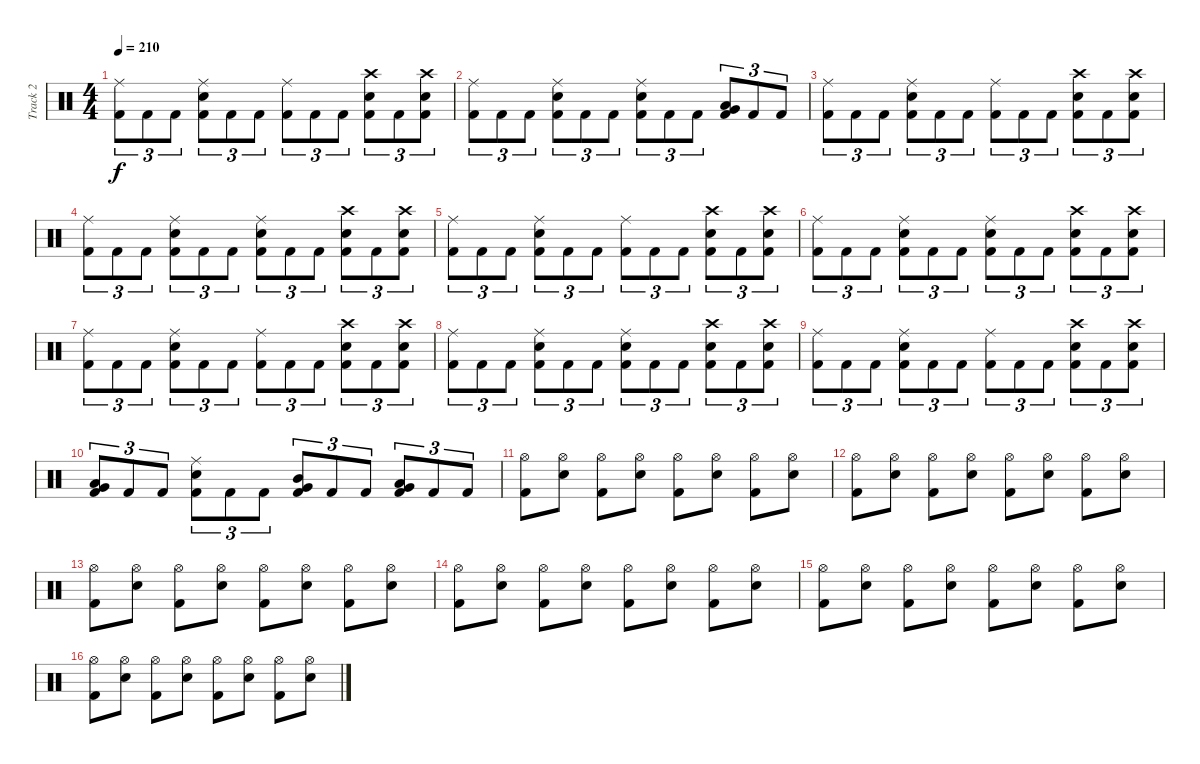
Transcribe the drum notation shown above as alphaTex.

\track ("Track 2" "Track 2") {instrument percussion}
\staff {score}
\articulation defaults
\ts (4 4)
\tempo 210
\clef neutral
\ks c
("Ride (middle)" "Kick (hit) 2").8{tu (3 2) dy f} "Kick (hit) 2".8{tu (3 2)} "Kick (hit) 2".8{tu (3 2)} ("Ride (middle)" "Snare (hit) 2" "Kick (hit) 2").8{tu (3 2)} "Kick (hit) 2".8{tu (3 2)} "Kick (hit) 2".8{tu (3 2)} ("Ride (middle)" "Kick (hit) 2").8{tu (3 2)} "Kick (hit) 2".8{tu (3 2)} "Kick (hit) 2".8{tu (3 2)} ("Crash high (hit)" "Snare (hit) 2" "Kick (hit) 2").8{tu (3 2)} "Kick (hit) 2".8{tu (3 2)} ("Crash high (hit)" "Snare (hit) 2" "Kick (hit) 2").8{tu (3 2)} |
("Ride (middle)" "Kick (hit) 2").8{tu (3 2)} "Kick (hit) 2".8{tu (3 2)} "Kick (hit) 2".8{tu (3 2)} ("Ride (middle)" "Snare (hit) 2" "Kick (hit) 2").8{tu (3 2)} "Kick (hit) 2".8{tu (3 2)} "Kick (hit) 2".8{tu (3 2)} ("Ride (middle)" "Snare (hit) 2" "Kick (hit) 2").8{tu (3 2)} "Kick (hit) 2".8{tu (3 2)} "Kick (hit) 2".8{tu (3 2)} ("Low Tom (hit)" "Very Low Tom (hit)" "Kick (hit) 2").8{tu (3 2)} "Kick (hit) 2".8{tu (3 2)} "Kick (hit) 2".8{tu (3 2)} |
("Ride (middle)" "Kick (hit) 2").8{tu (3 2)} "Kick (hit) 2".8{tu (3 2)} "Kick (hit) 2".8{tu (3 2)} ("Ride (middle)" "Snare (hit) 2" "Kick (hit) 2").8{tu (3 2)} "Kick (hit) 2".8{tu (3 2)} "Kick (hit) 2".8{tu (3 2)} ("Ride (middle)" "Kick (hit) 2").8{tu (3 2)} "Kick (hit) 2".8{tu (3 2)} "Kick (hit) 2".8{tu (3 2)} ("Crash high (hit)" "Snare (hit) 2" "Kick (hit) 2").8{tu (3 2)} "Kick (hit) 2".8{tu (3 2)} ("Crash high (hit)" "Snare (hit) 2" "Kick (hit) 2").8{tu (3 2)} |
("Ride (middle)" "Kick (hit) 2").8{tu (3 2)} "Kick (hit) 2".8{tu (3 2)} "Kick (hit) 2".8{tu (3 2)} ("Ride (middle)" "Snare (hit) 2" "Kick (hit) 2").8{tu (3 2)} "Kick (hit) 2".8{tu (3 2)} "Kick (hit) 2".8{tu (3 2)} ("Ride (middle)" "Snare (hit) 2" "Kick (hit) 2").8{tu (3 2)} "Kick (hit) 2".8{tu (3 2)} "Kick (hit) 2".8{tu (3 2)} ("Crash high (hit)" "Snare (hit) 2" "Kick (hit) 2").8{tu (3 2)} "Kick (hit) 2".8{tu (3 2)} ("Crash high (hit)" "Snare (hit) 2" "Kick (hit) 2").8{tu (3 2)} |
("Ride (middle)" "Kick (hit) 2").8{tu (3 2)} "Kick (hit) 2".8{tu (3 2)} "Kick (hit) 2".8{tu (3 2)} ("Ride (middle)" "Snare (hit) 2" "Kick (hit) 2").8{tu (3 2)} "Kick (hit) 2".8{tu (3 2)} "Kick (hit) 2".8{tu (3 2)} ("Ride (middle)" "Kick (hit) 2").8{tu (3 2)} "Kick (hit) 2".8{tu (3 2)} "Kick (hit) 2".8{tu (3 2)} ("Crash high (hit)" "Snare (hit) 2" "Kick (hit) 2").8{tu (3 2)} "Kick (hit) 2".8{tu (3 2)} ("Crash high (hit)" "Snare (hit) 2" "Kick (hit) 2").8{tu (3 2)} |
("Ride (middle)" "Kick (hit) 2").8{tu (3 2)} "Kick (hit) 2".8{tu (3 2)} "Kick (hit) 2".8{tu (3 2)} ("Ride (middle)" "Snare (hit) 2" "Kick (hit) 2").8{tu (3 2)} "Kick (hit) 2".8{tu (3 2)} "Kick (hit) 2".8{tu (3 2)} ("Ride (middle)" "Snare (hit) 2" "Kick (hit) 2").8{tu (3 2)} "Kick (hit) 2".8{tu (3 2)} "Kick (hit) 2".8{tu (3 2)} ("Crash high (hit)" "Snare (hit) 2" "Kick (hit) 2").8{tu (3 2)} "Kick (hit) 2".8{tu (3 2)} ("Crash high (hit)" "Snare (hit) 2" "Kick (hit) 2").8{tu (3 2)} |
("Ride (middle)" "Kick (hit) 2").8{tu (3 2)} "Kick (hit) 2".8{tu (3 2)} "Kick (hit) 2".8{tu (3 2)} ("Ride (middle)" "Snare (hit) 2" "Kick (hit) 2").8{tu (3 2)} "Kick (hit) 2".8{tu (3 2)} "Kick (hit) 2".8{tu (3 2)} ("Ride (middle)" "Kick (hit) 2").8{tu (3 2)} "Kick (hit) 2".8{tu (3 2)} "Kick (hit) 2".8{tu (3 2)} ("Crash high (hit)" "Snare (hit) 2" "Kick (hit) 2").8{tu (3 2)} "Kick (hit) 2".8{tu (3 2)} ("Crash high (hit)" "Snare (hit) 2" "Kick (hit) 2").8{tu (3 2)} |
("Ride (middle)" "Kick (hit) 2").8{tu (3 2)} "Kick (hit) 2".8{tu (3 2)} "Kick (hit) 2".8{tu (3 2)} ("Ride (middle)" "Snare (hit) 2" "Kick (hit) 2").8{tu (3 2)} "Kick (hit) 2".8{tu (3 2)} "Kick (hit) 2".8{tu (3 2)} ("Ride (middle)" "Snare (hit) 2" "Kick (hit) 2").8{tu (3 2)} "Kick (hit) 2".8{tu (3 2)} "Kick (hit) 2".8{tu (3 2)} ("Crash high (hit)" "Snare (hit) 2" "Kick (hit) 2").8{tu (3 2)} "Kick (hit) 2".8{tu (3 2)} ("Crash high (hit)" "Snare (hit) 2" "Kick (hit) 2").8{tu (3 2)} |
("Ride (middle)" "Kick (hit) 2").8{tu (3 2)} "Kick (hit) 2".8{tu (3 2)} "Kick (hit) 2".8{tu (3 2)} ("Ride (middle)" "Snare (hit) 2" "Kick (hit) 2").8{tu (3 2)} "Kick (hit) 2".8{tu (3 2)} "Kick (hit) 2".8{tu (3 2)} ("Ride (middle)" "Kick (hit) 2").8{tu (3 2)} "Kick (hit) 2".8{tu (3 2)} "Kick (hit) 2".8{tu (3 2)} ("Crash high (hit)" "Snare (hit) 2" "Kick (hit) 2").8{tu (3 2)} "Kick (hit) 2".8{tu (3 2)} ("Crash high (hit)" "Snare (hit) 2" "Kick (hit) 2").8{tu (3 2)} |
("Low Tom (hit)" "Very Low Tom (hit)" "Kick (hit) 2").8{tu (3 2)} "Kick (hit) 2".8{tu (3 2)} "Kick (hit) 2".8{tu (3 2)} ("Ride (middle)" "Snare (hit) 2" "Kick (hit) 2").8{tu (3 2)} "Kick (hit) 2".8{tu (3 2)} "Kick (hit) 2".8{tu (3 2)} ("Mid Tom (hit)" "Very Low Tom (hit)" "Kick (hit) 2").8{tu (3 2)} "Kick (hit) 2".8{tu (3 2)} "Kick (hit) 2".8{tu (3 2)} ("Low Tom (hit)" "Very Low Tom (hit)" "Kick (hit) 2").8{tu (3 2)} "Kick (hit) 2".8{tu (3 2)} "Kick (hit) 2".8{tu (3 2)} |
("Hi-Hat (open)" "Kick (hit) 2").8 ("Hi-Hat (open)" "Snare (hit) 2").8 ("Hi-Hat (open)" "Kick (hit) 2").8 ("Hi-Hat (open)" "Snare (hit) 2").8 ("Hi-Hat (open)" "Kick (hit) 2").8 ("Hi-Hat (open)" "Snare (hit) 2").8 ("Hi-Hat (open)" "Kick (hit) 2").8 ("Hi-Hat (open)" "Snare (hit) 2").8 |
("Hi-Hat (open)" "Kick (hit) 2").8 ("Hi-Hat (open)" "Snare (hit) 2").8 ("Hi-Hat (open)" "Kick (hit) 2").8 ("Hi-Hat (open)" "Snare (hit) 2").8 ("Hi-Hat (open)" "Kick (hit) 2").8 ("Hi-Hat (open)" "Snare (hit) 2").8 ("Hi-Hat (open)" "Kick (hit) 2").8 ("Hi-Hat (open)" "Snare (hit) 2").8 |
("Hi-Hat (open)" "Kick (hit) 2").8 ("Hi-Hat (open)" "Snare (hit) 2").8 ("Hi-Hat (open)" "Kick (hit) 2").8 ("Hi-Hat (open)" "Snare (hit) 2").8 ("Hi-Hat (open)" "Kick (hit) 2").8 ("Hi-Hat (open)" "Snare (hit) 2").8 ("Hi-Hat (open)" "Kick (hit) 2").8 ("Hi-Hat (open)" "Snare (hit) 2").8 |
("Hi-Hat (open)" "Kick (hit) 2").8 ("Hi-Hat (open)" "Snare (hit) 2").8 ("Hi-Hat (open)" "Kick (hit) 2").8 ("Hi-Hat (open)" "Snare (hit) 2").8 ("Hi-Hat (open)" "Kick (hit) 2").8 ("Hi-Hat (open)" "Snare (hit) 2").8 ("Hi-Hat (open)" "Kick (hit) 2").8 ("Hi-Hat (open)" "Snare (hit) 2").8 |
("Hi-Hat (open)" "Kick (hit) 2").8 ("Hi-Hat (open)" "Snare (hit) 2").8 ("Hi-Hat (open)" "Kick (hit) 2").8 ("Hi-Hat (open)" "Snare (hit) 2").8 ("Hi-Hat (open)" "Kick (hit) 2").8 ("Hi-Hat (open)" "Snare (hit) 2").8 ("Hi-Hat (open)" "Kick (hit) 2").8 ("Hi-Hat (open)" "Snare (hit) 2").8 |
("Hi-Hat (open)" "Kick (hit) 2").8 ("Hi-Hat (open)" "Snare (hit) 2").8 ("Hi-Hat (open)" "Kick (hit) 2").8 ("Hi-Hat (open)" "Snare (hit) 2").8 ("Hi-Hat (open)" "Kick (hit) 2").8 ("Hi-Hat (open)" "Snare (hit) 2").8 ("Hi-Hat (open)" "Kick (hit) 2").8 ("Hi-Hat (open)" "Snare (hit) 2").8
